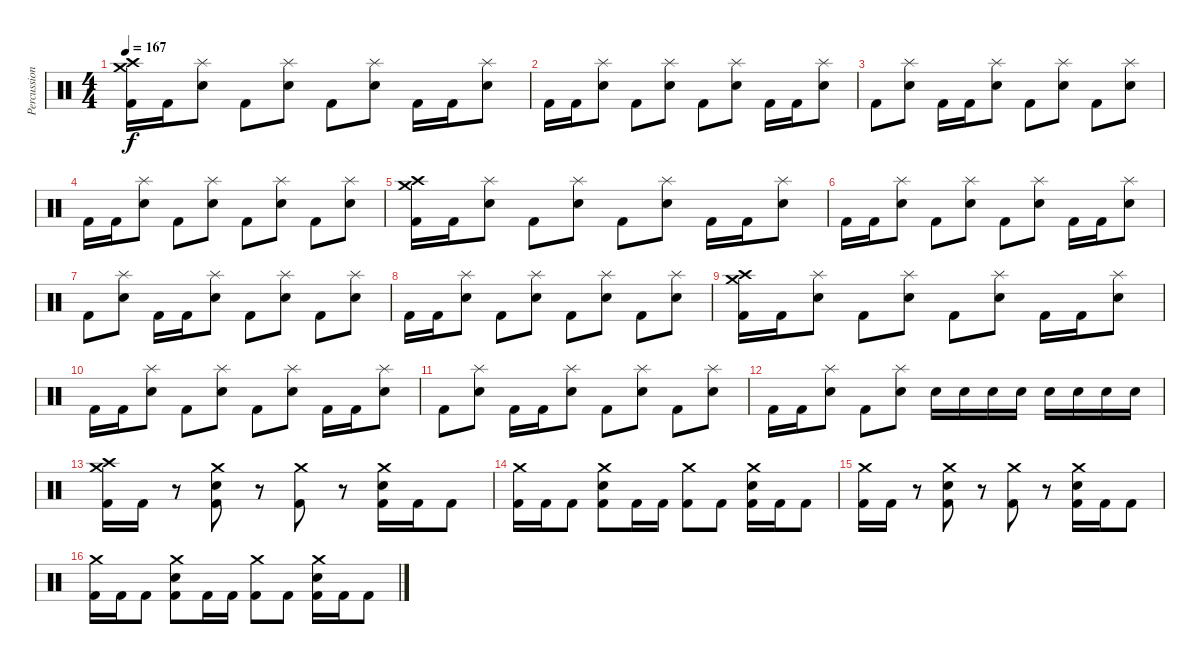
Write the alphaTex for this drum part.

\track ("Percussion" "Percussion") {instrument percussion}
\staff {score}
\articulation defaults
\ts (4 4)
\tempo 167
\clef neutral
\ks c
("Crash medium (hit)" "Crash high (hit)" "Kick (hit) 2").16{dy f} "Kick (hit) 2".16 ("Splash (hit)" "Electric Snare (hit)").8 "Kick (hit) 2".8 ("Splash (hit)" "Electric Snare (hit)").8 "Kick (hit) 2".8 ("Splash (hit)" "Electric Snare (hit)").8 "Kick (hit) 2".16 "Kick (hit) 2".16 ("Splash (hit)" "Electric Snare (hit)").8 |
"Kick (hit) 2".16 "Kick (hit) 2".16 ("Splash (hit)" "Electric Snare (hit)").8 "Kick (hit) 2".8 ("Splash (hit)" "Electric Snare (hit)").8 "Kick (hit) 2".8 ("Splash (hit)" "Electric Snare (hit)").8 "Kick (hit) 2".16 "Kick (hit) 2".16 ("Splash (hit)" "Electric Snare (hit)").8 |
"Kick (hit) 2".8 ("Splash (hit)" "Electric Snare (hit)").8 "Kick (hit) 2".16 "Kick (hit) 2".16 ("Splash (hit)" "Electric Snare (hit)").8 "Kick (hit) 2".8 ("Splash (hit)" "Electric Snare (hit)").8 "Kick (hit) 2".8 ("Splash (hit)" "Electric Snare (hit)").8 |
"Kick (hit) 2".16 "Kick (hit) 2".16 ("Splash (hit)" "Electric Snare (hit)").8 "Kick (hit) 2".8 ("Splash (hit)" "Electric Snare (hit)").8 "Kick (hit) 2".8 ("Splash (hit)" "Electric Snare (hit)").8 "Kick (hit) 2".8 ("Splash (hit)" "Electric Snare (hit)").8 |
("Crash medium (hit)" "Crash high (hit)" "Kick (hit) 2").16 "Kick (hit) 2".16 ("Splash (hit)" "Electric Snare (hit)").8 "Kick (hit) 2".8 ("Splash (hit)" "Electric Snare (hit)").8 "Kick (hit) 2".8 ("Splash (hit)" "Electric Snare (hit)").8 "Kick (hit) 2".16 "Kick (hit) 2".16 ("Splash (hit)" "Electric Snare (hit)").8 |
"Kick (hit) 2".16 "Kick (hit) 2".16 ("Splash (hit)" "Electric Snare (hit)").8 "Kick (hit) 2".8 ("Splash (hit)" "Electric Snare (hit)").8 "Kick (hit) 2".8 ("Splash (hit)" "Electric Snare (hit)").8 "Kick (hit) 2".16 "Kick (hit) 2".16 ("Splash (hit)" "Electric Snare (hit)").8 |
"Kick (hit) 2".8 ("Splash (hit)" "Electric Snare (hit)").8 "Kick (hit) 2".16 "Kick (hit) 2".16 ("Splash (hit)" "Electric Snare (hit)").8 "Kick (hit) 2".8 ("Splash (hit)" "Electric Snare (hit)").8 "Kick (hit) 2".8 ("Splash (hit)" "Electric Snare (hit)").8 |
"Kick (hit) 2".16 "Kick (hit) 2".16 ("Splash (hit)" "Electric Snare (hit)").8 "Kick (hit) 2".8 ("Splash (hit)" "Electric Snare (hit)").8 "Kick (hit) 2".8 ("Splash (hit)" "Electric Snare (hit)").8 "Kick (hit) 2".8 ("Splash (hit)" "Electric Snare (hit)").8 |
("Crash medium (hit)" "Crash high (hit)" "Kick (hit) 2").16 "Kick (hit) 2".16 ("Splash (hit)" "Electric Snare (hit)").8 "Kick (hit) 2".8 ("Splash (hit)" "Electric Snare (hit)").8 "Kick (hit) 2".8 ("Splash (hit)" "Electric Snare (hit)").8 "Kick (hit) 2".16 "Kick (hit) 2".16 ("Splash (hit)" "Electric Snare (hit)").8 |
"Kick (hit) 2".16 "Kick (hit) 2".16 ("Splash (hit)" "Electric Snare (hit)").8 "Kick (hit) 2".8 ("Splash (hit)" "Electric Snare (hit)").8 "Kick (hit) 2".8 ("Splash (hit)" "Electric Snare (hit)").8 "Kick (hit) 2".16 "Kick (hit) 2".16 ("Splash (hit)" "Electric Snare (hit)").8 |
"Kick (hit) 2".8 ("Splash (hit)" "Electric Snare (hit)").8 "Kick (hit) 2".16 "Kick (hit) 2".16 ("Splash (hit)" "Electric Snare (hit)").8 "Kick (hit) 2".8 ("Splash (hit)" "Electric Snare (hit)").8 "Kick (hit) 2".8 ("Splash (hit)" "Electric Snare (hit)").8 |
"Kick (hit) 2".16 "Kick (hit) 2".16 ("Splash (hit)" "Electric Snare (hit)").8 "Kick (hit) 2".8 ("Splash (hit)" "Electric Snare (hit)").8 "Electric Snare (hit)".16 "Electric Snare (hit)".16 "Electric Snare (hit)".16 "Electric Snare (hit)".16 "Electric Snare (hit)".16 "Electric Snare (hit)".16 "Electric Snare (hit)".16 "Electric Snare (hit)".16 |
("Crash medium (hit)" "Crash high (hit)" "Kick (hit) 2").16 "Kick (hit) 2".16 r.8 ("Crash medium (hit)" "Electric Snare (hit)" "Kick (hit) 2").8 r.8 ("Crash medium (hit)" "Kick (hit) 2").8 r.8 ("Crash medium (hit)" "Electric Snare (hit)" "Kick (hit) 2").16 "Kick (hit) 2".16 "Kick (hit) 2".8 |
("Crash medium (hit)" "Kick (hit) 2").16 "Kick (hit) 2".16 "Kick (hit) 2".8 ("Crash medium (hit)" "Electric Snare (hit)" "Kick (hit) 2").8 "Kick (hit) 2".16 "Kick (hit) 2".16 ("Crash medium (hit)" "Kick (hit) 2").8 "Kick (hit) 2".8 ("Crash medium (hit)" "Electric Snare (hit)" "Kick (hit) 2").16 "Kick (hit) 2".16 "Kick (hit) 2".8 |
("Crash medium (hit)" "Kick (hit) 2").16 "Kick (hit) 2".16 r.8 ("Crash medium (hit)" "Electric Snare (hit)" "Kick (hit) 2").8 r.8 ("Crash medium (hit)" "Kick (hit) 2").8 r.8 ("Crash medium (hit)" "Electric Snare (hit)" "Kick (hit) 2").16 "Kick (hit) 2".16 "Kick (hit) 2".8 |
("Crash medium (hit)" "Kick (hit) 2").16 "Kick (hit) 2".16 "Kick (hit) 2".8 ("Crash medium (hit)" "Electric Snare (hit)" "Kick (hit) 2").8 "Kick (hit) 2".16 "Kick (hit) 2".16 ("Crash medium (hit)" "Kick (hit) 2").8 "Kick (hit) 2".8 ("Crash medium (hit)" "Electric Snare (hit)" "Kick (hit) 2").16 "Kick (hit) 2".16 "Kick (hit) 2".8
